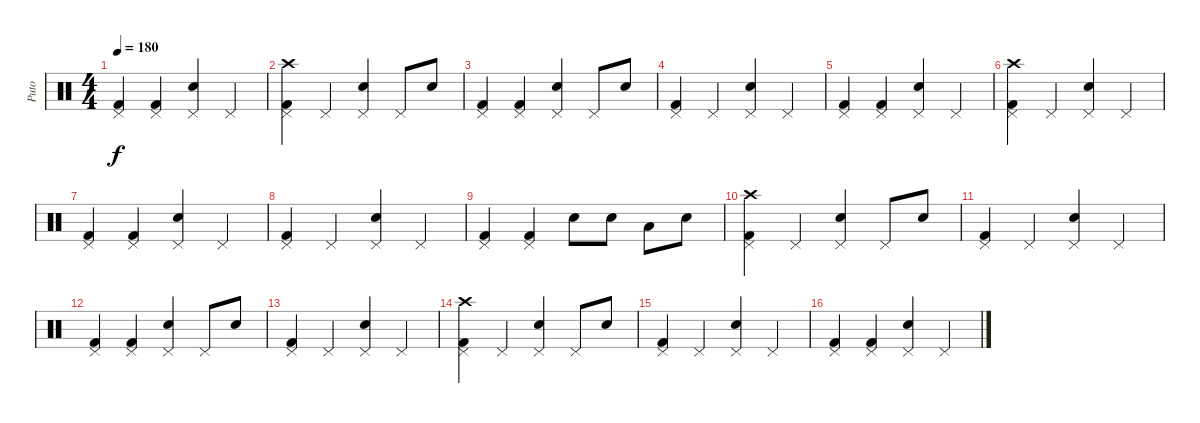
\track ("Puto" "Puto") {instrument percussion}
\staff {score}
\articulation defaults
\ts (4 4)
\tempo 180
\clef neutral
\ks c
("Kick (hit) 2" "Pedal Hi-Hat (hit)").4{dy f} ("Kick (hit) 2" "Pedal Hi-Hat (hit)").4 ("Snare (hit) 2" "Pedal Hi-Hat (hit)").4 "Pedal Hi-Hat (hit)".4 |
("Kick (hit) 2" "Crash high (hit)" "Pedal Hi-Hat (hit)").4 "Pedal Hi-Hat (hit)".4 ("Snare (hit) 2" "Pedal Hi-Hat (hit)").4 "Pedal Hi-Hat (hit)".8 "Snare (hit) 2".8 |
("Kick (hit) 2" "Pedal Hi-Hat (hit)").4 ("Kick (hit) 2" "Pedal Hi-Hat (hit)").4 ("Snare (hit) 2" "Pedal Hi-Hat (hit)").4 "Pedal Hi-Hat (hit)".8 "Snare (hit) 2".8 |
("Kick (hit) 2" "Pedal Hi-Hat (hit)").4 "Pedal Hi-Hat (hit)".4 ("Snare (hit) 2" "Pedal Hi-Hat (hit)").4 "Pedal Hi-Hat (hit)".4 |
("Kick (hit) 2" "Pedal Hi-Hat (hit)").4 ("Kick (hit) 2" "Pedal Hi-Hat (hit)").4 ("Snare (hit) 2" "Pedal Hi-Hat (hit)").4 "Pedal Hi-Hat (hit)".4 |
("Kick (hit) 2" "Crash high (hit)" "Pedal Hi-Hat (hit)").4 "Pedal Hi-Hat (hit)".4 ("Snare (hit) 2" "Pedal Hi-Hat (hit)").4 "Pedal Hi-Hat (hit)".4 |
("Kick (hit) 2" "Pedal Hi-Hat (hit)").4 ("Kick (hit) 2" "Pedal Hi-Hat (hit)").4 ("Snare (hit) 2" "Pedal Hi-Hat (hit)").4 "Pedal Hi-Hat (hit)".4 |
("Kick (hit) 2" "Pedal Hi-Hat (hit)").4 "Pedal Hi-Hat (hit)".4 ("Snare (hit) 2" "Pedal Hi-Hat (hit)").4 "Pedal Hi-Hat (hit)".4 |
("Kick (hit) 2" "Pedal Hi-Hat (hit)").4 ("Kick (hit) 2" "Pedal Hi-Hat (hit)").4 "Snare (hit) 2".8 "Snare (hit) 2".8 "Low Tom (hit)".8 "Snare (hit) 2".8 |
("Kick (hit) 2" "Crash high (hit)" "Pedal Hi-Hat (hit)").4 "Pedal Hi-Hat (hit)".4 ("Snare (hit) 2" "Pedal Hi-Hat (hit)").4 "Pedal Hi-Hat (hit)".8 "Snare (hit) 2".8 |
("Kick (hit) 2" "Pedal Hi-Hat (hit)").4 "Pedal Hi-Hat (hit)".4 ("Snare (hit) 2" "Pedal Hi-Hat (hit)").4 "Pedal Hi-Hat (hit)".4 |
("Kick (hit) 2" "Pedal Hi-Hat (hit)").4 ("Kick (hit) 2" "Pedal Hi-Hat (hit)").4 ("Snare (hit) 2" "Pedal Hi-Hat (hit)").4 "Pedal Hi-Hat (hit)".8 "Snare (hit) 2".8 |
("Kick (hit) 2" "Pedal Hi-Hat (hit)").4 "Pedal Hi-Hat (hit)".4 ("Snare (hit) 2" "Pedal Hi-Hat (hit)").4 "Pedal Hi-Hat (hit)".4 |
("Kick (hit) 2" "Crash high (hit)" "Pedal Hi-Hat (hit)").4 "Pedal Hi-Hat (hit)".4 ("Snare (hit) 2" "Pedal Hi-Hat (hit)").4 "Pedal Hi-Hat (hit)".8 "Snare (hit) 2".8 |
("Kick (hit) 2" "Pedal Hi-Hat (hit)").4 "Pedal Hi-Hat (hit)".4 ("Snare (hit) 2" "Pedal Hi-Hat (hit)").4 "Pedal Hi-Hat (hit)".4 |
("Kick (hit) 2" "Pedal Hi-Hat (hit)").4 ("Kick (hit) 2" "Pedal Hi-Hat (hit)").4 ("Snare (hit) 2" "Pedal Hi-Hat (hit)").4 "Pedal Hi-Hat (hit)".4
